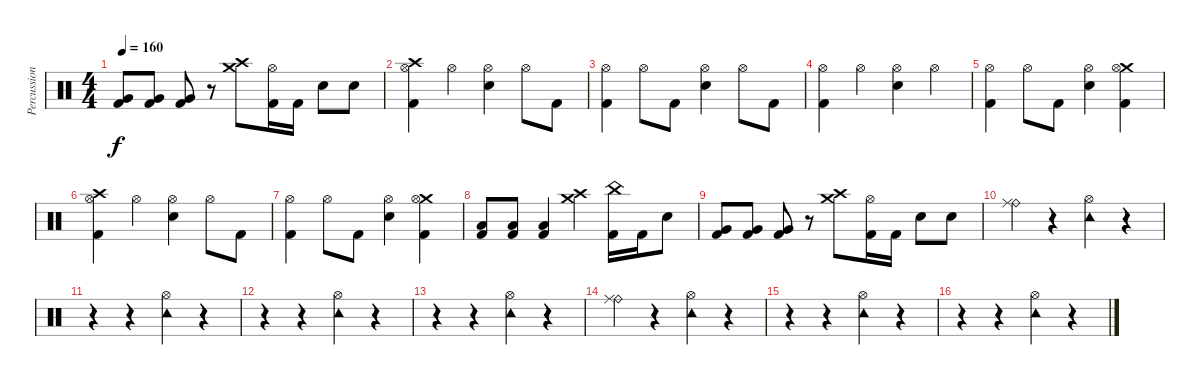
\track ("Percussion" "Percussion") {instrument percussion}
\staff {score}
\articulation defaults
\ts (4 4)
\tempo 160
\clef neutral
\ks c
("Very Low Tom (hit)" "Kick (hit) 2").8{dy f} ("Very Low Tom (hit)" "Kick (hit) 2").8 ("Very Low Tom (hit)" "Kick (hit) 2").8 r.8 ("Crash medium (hit)" "Crash high (hit)").8 ("Hi-Hat (open)" "Kick (hit) 2").16 "Kick (hit) 2".16 "Electric Snare (hit)".8 "Electric Snare (hit)".8 |
("Crash high (hit)" "Hi-Hat (open)" "Kick (hit) 2").4 "Hi-Hat (open)".4 ("Hi-Hat (open)" "Electric Snare (hit)").4 "Hi-Hat (open)".8 "Kick (hit) 2".8 |
("Hi-Hat (open)" "Kick (hit) 2").4 "Hi-Hat (open)".8 "Kick (hit) 2".8 ("Hi-Hat (open)" "Electric Snare (hit)").4 "Hi-Hat (open)".8 "Kick (hit) 2".8 |
("Hi-Hat (open)" "Kick (hit) 2").4 "Hi-Hat (open)".4 ("Hi-Hat (open)" "Electric Snare (hit)").4 "Hi-Hat (open)".4 |
("Hi-Hat (open)" "Kick (hit) 2").4 "Hi-Hat (open)".8 "Kick (hit) 2".8 ("Hi-Hat (open)" "Electric Snare (hit)").4 ("Crash medium (hit)" "Hi-Hat (open)" "Kick (hit) 2").4 |
("Crash high (hit)" "Hi-Hat (open)" "Kick (hit) 2").4 "Hi-Hat (open)".4 ("Hi-Hat (open)" "Electric Snare (hit)").4 "Hi-Hat (open)".8 "Kick (hit) 2".8 |
("Hi-Hat (open)" "Kick (hit) 2").4 "Hi-Hat (open)".8 "Kick (hit) 2".8 ("Hi-Hat (open)" "Electric Snare (hit)").4 ("Crash medium (hit)" "Hi-Hat (open)" "Kick (hit) 2").4 |
("Low Tom (hit)" "Kick (hit) 2").8 ("Low Tom (hit)" "Kick (hit) 2").8 ("Low Tom (hit)" "Kick (hit) 2").4 ("Crash medium (hit)" "Crash high (hit)").4 ("China (hit)" "Kick (hit) 2").16 "Kick (hit) 2".16 "Electric Snare (hit)".8 |
("Very Low Tom (hit)" "Kick (hit) 2").8 ("Very Low Tom (hit)" "Kick (hit) 2").8 ("Very Low Tom (hit)" "Kick (hit) 2").8 r.8 ("Crash medium (hit)" "Crash high (hit)").8 ("Hi-Hat (open)" "Kick (hit) 2").16 "Kick (hit) 2".16 "Electric Snare (hit)".8 "Electric Snare (hit)".8 |
("Ride (bell)" "Ride (middle)").4 r.4 ("Tambourine (hit)" "Hi-Hat (open)").4 r.4 |
r.4 r.4 ("Tambourine (hit)" "Hi-Hat (open)").4 r.4 |
r.4 r.4 ("Tambourine (hit)" "Hi-Hat (open)").4 r.4 |
r.4 r.4 ("Tambourine (hit)" "Hi-Hat (open)").4 r.4 |
("Ride (bell)" "Ride (middle)").4 r.4 ("Tambourine (hit)" "Hi-Hat (open)").4 r.4 |
r.4 r.4 ("Tambourine (hit)" "Hi-Hat (open)").4 r.4 |
r.4 r.4 ("Tambourine (hit)" "Hi-Hat (open)").4 r.4
